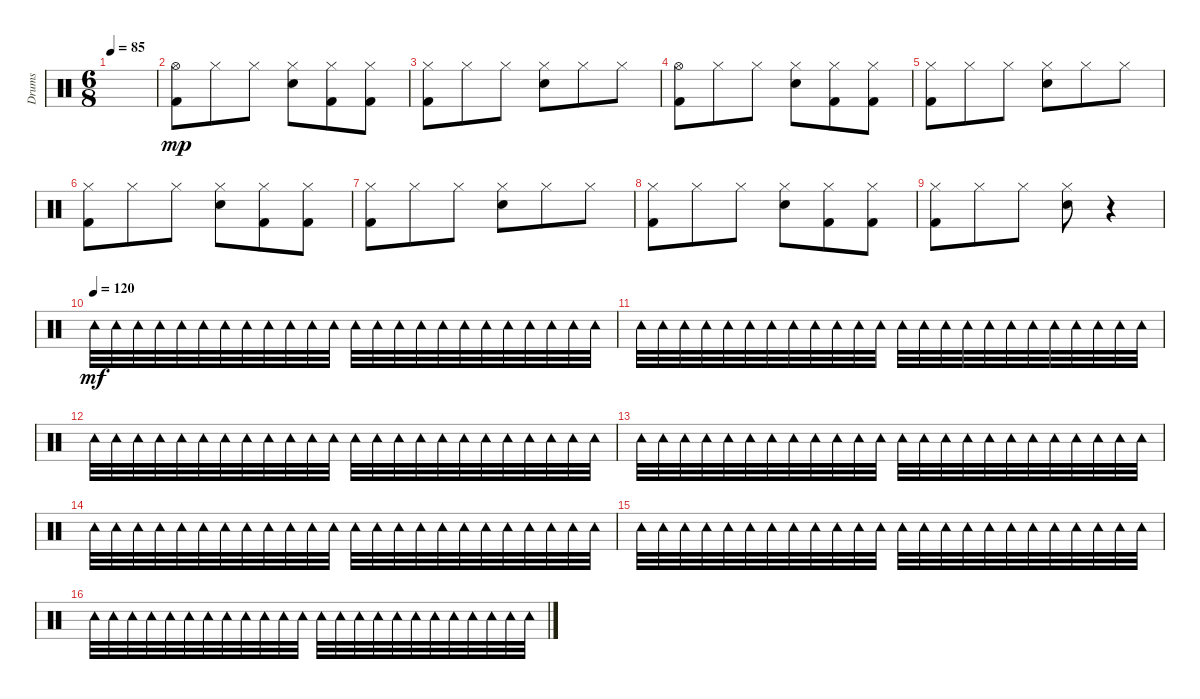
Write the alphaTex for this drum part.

\track ("Drums" "Drums") {instrument percussion}
\staff {score}
\articulation defaults
\ts (6 8)
\tempo 85
\clef neutral
\ks c
|
("Hi-Hat (open)" "Kick (hit) 2").8{dy mp} "Hi-Hat (closed)".8 "Hi-Hat (closed)".8 ("Hi-Hat (closed)" "Snare (hit) 2").8 ("Hi-Hat (closed)" "Kick (hit) 2").8 ("Hi-Hat (closed)" "Kick (hit) 2").8 |
("Hi-Hat (closed)" "Kick (hit) 2").8 "Hi-Hat (closed)".8 "Hi-Hat (closed)".8 ("Hi-Hat (closed)" "Snare (hit) 2").8 "Hi-Hat (closed)".8 "Hi-Hat (closed)".8 |
("Hi-Hat (open)" "Kick (hit) 2").8 "Hi-Hat (closed)".8 "Hi-Hat (closed)".8 ("Hi-Hat (closed)" "Snare (hit) 2").8 ("Hi-Hat (closed)" "Kick (hit) 2").8 ("Hi-Hat (closed)" "Kick (hit) 2").8 |
("Hi-Hat (closed)" "Kick (hit) 2").8 "Hi-Hat (closed)".8 "Hi-Hat (closed)".8 ("Hi-Hat (closed)" "Snare (hit) 2").8 "Hi-Hat (closed)".8 "Hi-Hat (closed)".8 |
("Hi-Hat (closed)" "Kick (hit) 2").8 "Hi-Hat (closed)".8 "Hi-Hat (closed)".8 ("Hi-Hat (closed)" "Snare (hit) 2").8 ("Hi-Hat (closed)" "Kick (hit) 2").8 ("Hi-Hat (closed)" "Kick (hit) 2").8 |
("Hi-Hat (closed)" "Kick (hit) 2").8 "Hi-Hat (closed)".8 "Hi-Hat (closed)".8 ("Hi-Hat (closed)" "Snare (hit) 2").8 "Hi-Hat (closed)".8 "Hi-Hat (closed)".8 |
("Hi-Hat (closed)" "Kick (hit) 2").8 "Hi-Hat (closed)".8 "Hi-Hat (closed)".8 ("Hi-Hat (closed)" "Snare (hit) 2").8 ("Hi-Hat (closed)" "Kick (hit) 2").8 ("Hi-Hat (closed)" "Kick (hit) 2").8 |
("Hi-Hat (closed)" "Kick (hit) 2").8 "Hi-Hat (closed)".8 "Hi-Hat (closed)".8 ("Hi-Hat (closed)" "Snare (hit) 2").8 r.4 |
\tempo (120)
"Tambourine (hit)".32{dy mf} "Tambourine (hit)".32 "Tambourine (hit)".32 "Tambourine (hit)".32 "Tambourine (hit)".32 "Tambourine (hit)".32 "Tambourine (hit)".32 "Tambourine (hit)".32 "Tambourine (hit)".32 "Tambourine (hit)".32 "Tambourine (hit)".32 "Tambourine (hit)".32 "Tambourine (hit)".32 "Tambourine (hit)".32 "Tambourine (hit)".32 "Tambourine (hit)".32 "Tambourine (hit)".32 "Tambourine (hit)".32 "Tambourine (hit)".32 "Tambourine (hit)".32 "Tambourine (hit)".32 "Tambourine (hit)".32 "Tambourine (hit)".32 "Tambourine (hit)".32 |
"Tambourine (hit)".32 "Tambourine (hit)".32 "Tambourine (hit)".32 "Tambourine (hit)".32 "Tambourine (hit)".32 "Tambourine (hit)".32 "Tambourine (hit)".32 "Tambourine (hit)".32 "Tambourine (hit)".32 "Tambourine (hit)".32 "Tambourine (hit)".32 "Tambourine (hit)".32 "Tambourine (hit)".32 "Tambourine (hit)".32 "Tambourine (hit)".32 "Tambourine (hit)".32 "Tambourine (hit)".32 "Tambourine (hit)".32 "Tambourine (hit)".32 "Tambourine (hit)".32 "Tambourine (hit)".32 "Tambourine (hit)".32 "Tambourine (hit)".32 "Tambourine (hit)".32 |
"Tambourine (hit)".32 "Tambourine (hit)".32 "Tambourine (hit)".32 "Tambourine (hit)".32 "Tambourine (hit)".32 "Tambourine (hit)".32 "Tambourine (hit)".32 "Tambourine (hit)".32 "Tambourine (hit)".32 "Tambourine (hit)".32 "Tambourine (hit)".32 "Tambourine (hit)".32 "Tambourine (hit)".32 "Tambourine (hit)".32 "Tambourine (hit)".32 "Tambourine (hit)".32 "Tambourine (hit)".32 "Tambourine (hit)".32 "Tambourine (hit)".32 "Tambourine (hit)".32 "Tambourine (hit)".32 "Tambourine (hit)".32 "Tambourine (hit)".32 "Tambourine (hit)".32 |
"Tambourine (hit)".32 "Tambourine (hit)".32 "Tambourine (hit)".32 "Tambourine (hit)".32 "Tambourine (hit)".32 "Tambourine (hit)".32 "Tambourine (hit)".32 "Tambourine (hit)".32 "Tambourine (hit)".32 "Tambourine (hit)".32 "Tambourine (hit)".32 "Tambourine (hit)".32 "Tambourine (hit)".32 "Tambourine (hit)".32 "Tambourine (hit)".32 "Tambourine (hit)".32 "Tambourine (hit)".32 "Tambourine (hit)".32 "Tambourine (hit)".32 "Tambourine (hit)".32 "Tambourine (hit)".32 "Tambourine (hit)".32 "Tambourine (hit)".32 "Tambourine (hit)".32 |
"Tambourine (hit)".32 "Tambourine (hit)".32 "Tambourine (hit)".32 "Tambourine (hit)".32 "Tambourine (hit)".32 "Tambourine (hit)".32 "Tambourine (hit)".32 "Tambourine (hit)".32 "Tambourine (hit)".32 "Tambourine (hit)".32 "Tambourine (hit)".32 "Tambourine (hit)".32 "Tambourine (hit)".32 "Tambourine (hit)".32 "Tambourine (hit)".32 "Tambourine (hit)".32 "Tambourine (hit)".32 "Tambourine (hit)".32 "Tambourine (hit)".32 "Tambourine (hit)".32 "Tambourine (hit)".32 "Tambourine (hit)".32 "Tambourine (hit)".32 "Tambourine (hit)".32 |
"Tambourine (hit)".32 "Tambourine (hit)".32 "Tambourine (hit)".32 "Tambourine (hit)".32 "Tambourine (hit)".32 "Tambourine (hit)".32 "Tambourine (hit)".32 "Tambourine (hit)".32 "Tambourine (hit)".32 "Tambourine (hit)".32 "Tambourine (hit)".32 "Tambourine (hit)".32 "Tambourine (hit)".32 "Tambourine (hit)".32 "Tambourine (hit)".32 "Tambourine (hit)".32 "Tambourine (hit)".32 "Tambourine (hit)".32 "Tambourine (hit)".32 "Tambourine (hit)".32 "Tambourine (hit)".32 "Tambourine (hit)".32 "Tambourine (hit)".32 "Tambourine (hit)".32 |
"Tambourine (hit)".32 "Tambourine (hit)".32 "Tambourine (hit)".32 "Tambourine (hit)".32 "Tambourine (hit)".32 "Tambourine (hit)".32 "Tambourine (hit)".32 "Tambourine (hit)".32 "Tambourine (hit)".32 "Tambourine (hit)".32 "Tambourine (hit)".32 "Tambourine (hit)".32 "Tambourine (hit)".32 "Tambourine (hit)".32 "Tambourine (hit)".32 "Tambourine (hit)".32 "Tambourine (hit)".32 "Tambourine (hit)".32 "Tambourine (hit)".32 "Tambourine (hit)".32 "Tambourine (hit)".32 "Tambourine (hit)".32 "Tambourine (hit)".32 "Tambourine (hit)".32
